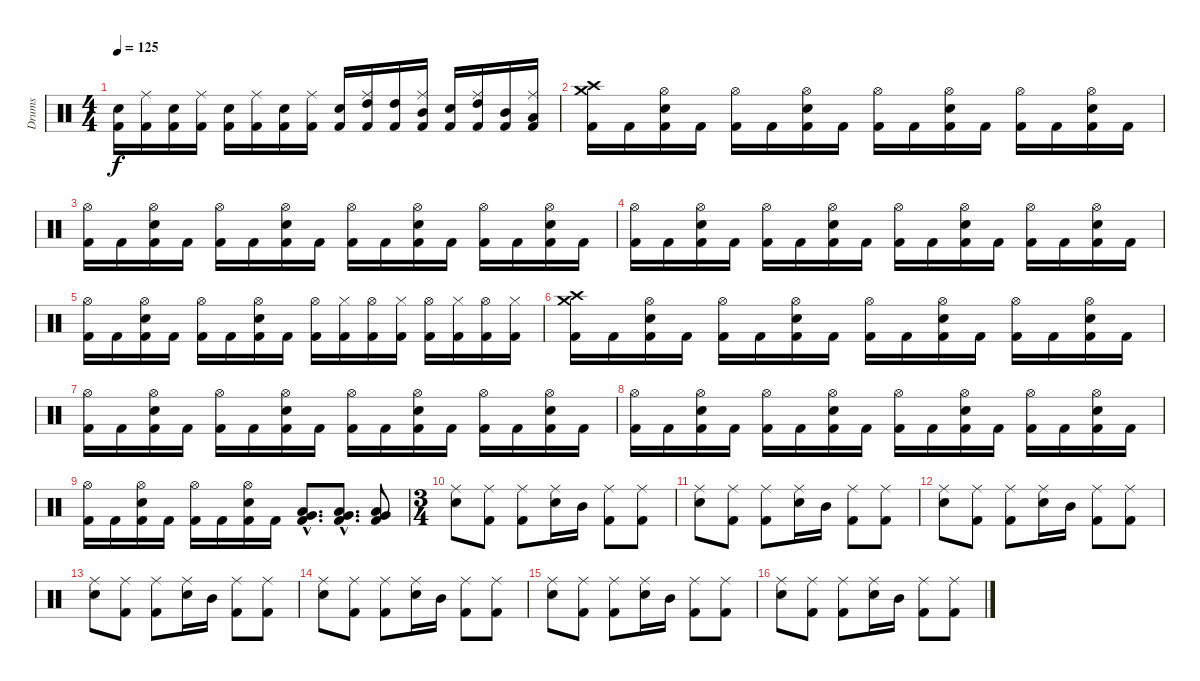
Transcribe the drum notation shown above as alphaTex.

\track ("Drums" "Drums") {instrument percussion}
\staff {score}
\articulation defaults
\ts (4 4)
\tempo 125
\clef neutral
\ks c
("Electric Snare (hit)" "Kick (hit) 2").16{dy f} ("Ride (middle)" "Kick (hit) 2").16 ("Electric Snare (hit)" "Kick (hit) 2").16 ("Ride (middle)" "Kick (hit) 2").16 ("Electric Snare (hit)" "Kick (hit) 2").16 ("Ride (middle)" "Kick (hit) 2").16 ("Electric Snare (hit)" "Kick (hit) 2").16 ("Ride (middle)" "Kick (hit) 2").16 ("Electric Snare (hit)" "Kick (hit) 2").16 ("Ride (middle)" "High Tom (hit)" "Kick (hit) 2").16 ("High Tom (hit)" "Kick (hit) 2").16 ("Ride (middle)" "Mid Tom (hit)" "Kick (hit) 2").16 ("Electric Snare (hit)" "Kick (hit) 2").16 ("Ride (middle)" "High Tom (hit)" "Kick (hit) 2").16 ("Mid Tom (hit)" "Kick (hit) 2").16 ("Ride (middle)" "Low Tom (hit)" "Kick (hit) 2").16 |
("Crash high (hit)" "Crash medium (hit)" "Kick (hit) 2").16 "Kick (hit) 2".16 ("Hi-Hat (open)" "Electric Snare (hit)" "Kick (hit) 2").16 "Kick (hit) 2".16 ("Hi-Hat (open)" "Kick (hit) 2").16 "Kick (hit) 2".16 ("Hi-Hat (open)" "Electric Snare (hit)" "Kick (hit) 2").16 "Kick (hit) 2".16 ("Hi-Hat (open)" "Kick (hit) 2").16 "Kick (hit) 2".16 ("Hi-Hat (open)" "Electric Snare (hit)" "Kick (hit) 2").16 "Kick (hit) 2".16 ("Hi-Hat (open)" "Kick (hit) 2").16 "Kick (hit) 2".16 ("Hi-Hat (open)" "Electric Snare (hit)" "Kick (hit) 2").16 "Kick (hit) 2".16 |
("Hi-Hat (open)" "Kick (hit) 2").16 "Kick (hit) 2".16 ("Hi-Hat (open)" "Electric Snare (hit)" "Kick (hit) 2").16 "Kick (hit) 2".16 ("Hi-Hat (open)" "Kick (hit) 2").16 "Kick (hit) 2".16 ("Hi-Hat (open)" "Electric Snare (hit)" "Kick (hit) 2").16 "Kick (hit) 2".16 ("Hi-Hat (open)" "Kick (hit) 2").16 "Kick (hit) 2".16 ("Hi-Hat (open)" "Electric Snare (hit)" "Kick (hit) 2").16 "Kick (hit) 2".16 ("Hi-Hat (open)" "Kick (hit) 2").16 "Kick (hit) 2".16 ("Hi-Hat (open)" "Electric Snare (hit)" "Kick (hit) 2").16 "Kick (hit) 2".16 |
("Hi-Hat (open)" "Kick (hit) 2").16 "Kick (hit) 2".16 ("Hi-Hat (open)" "Electric Snare (hit)" "Kick (hit) 2").16 "Kick (hit) 2".16 ("Hi-Hat (open)" "Kick (hit) 2").16 "Kick (hit) 2".16 ("Hi-Hat (open)" "Electric Snare (hit)" "Kick (hit) 2").16 "Kick (hit) 2".16 ("Hi-Hat (open)" "Kick (hit) 2").16 "Kick (hit) 2".16 ("Hi-Hat (open)" "Electric Snare (hit)" "Kick (hit) 2").16 "Kick (hit) 2".16 ("Hi-Hat (open)" "Kick (hit) 2").16 "Kick (hit) 2".16 ("Hi-Hat (open)" "Electric Snare (hit)" "Kick (hit) 2").16 "Kick (hit) 2".16 |
("Hi-Hat (open)" "Kick (hit) 2").16 "Kick (hit) 2".16 ("Hi-Hat (open)" "Electric Snare (hit)" "Kick (hit) 2").16 "Kick (hit) 2".16 ("Hi-Hat (open)" "Kick (hit) 2").16 "Kick (hit) 2".16 ("Hi-Hat (open)" "Electric Snare (hit)" "Kick (hit) 2").16 "Kick (hit) 2".16 ("Hi-Hat (open)" "Kick (hit) 2").16 ("Hi-Hat (closed)" "Kick (hit) 2").16 ("Hi-Hat (open)" "Kick (hit) 2").16 ("Hi-Hat (closed)" "Kick (hit) 2").16 ("Hi-Hat (open)" "Kick (hit) 2").16 ("Hi-Hat (closed)" "Kick (hit) 2").16 ("Hi-Hat (open)" "Kick (hit) 2").16 ("Hi-Hat (closed)" "Kick (hit) 2").16 |
("Crash high (hit)" "Crash medium (hit)" "Kick (hit) 2").16 "Kick (hit) 2".16 ("Hi-Hat (open)" "Electric Snare (hit)" "Kick (hit) 2").16 "Kick (hit) 2".16 ("Hi-Hat (open)" "Kick (hit) 2").16 "Kick (hit) 2".16 ("Hi-Hat (open)" "Electric Snare (hit)" "Kick (hit) 2").16 "Kick (hit) 2".16 ("Hi-Hat (open)" "Kick (hit) 2").16 "Kick (hit) 2".16 ("Hi-Hat (open)" "Electric Snare (hit)" "Kick (hit) 2").16 "Kick (hit) 2".16 ("Hi-Hat (open)" "Kick (hit) 2").16 "Kick (hit) 2".16 ("Hi-Hat (open)" "Electric Snare (hit)" "Kick (hit) 2").16 "Kick (hit) 2".16 |
("Hi-Hat (open)" "Kick (hit) 2").16 "Kick (hit) 2".16 ("Hi-Hat (open)" "Electric Snare (hit)" "Kick (hit) 2").16 "Kick (hit) 2".16 ("Hi-Hat (open)" "Kick (hit) 2").16 "Kick (hit) 2".16 ("Hi-Hat (open)" "Electric Snare (hit)" "Kick (hit) 2").16 "Kick (hit) 2".16 ("Hi-Hat (open)" "Kick (hit) 2").16 "Kick (hit) 2".16 ("Hi-Hat (open)" "Electric Snare (hit)" "Kick (hit) 2").16 "Kick (hit) 2".16 ("Hi-Hat (open)" "Kick (hit) 2").16 "Kick (hit) 2".16 ("Hi-Hat (open)" "Electric Snare (hit)" "Kick (hit) 2").16 "Kick (hit) 2".16 |
("Hi-Hat (open)" "Kick (hit) 2").16 "Kick (hit) 2".16 ("Hi-Hat (open)" "Electric Snare (hit)" "Kick (hit) 2").16 "Kick (hit) 2".16 ("Hi-Hat (open)" "Kick (hit) 2").16 "Kick (hit) 2".16 ("Hi-Hat (open)" "Electric Snare (hit)" "Kick (hit) 2").16 "Kick (hit) 2".16 ("Hi-Hat (open)" "Kick (hit) 2").16 "Kick (hit) 2".16 ("Hi-Hat (open)" "Electric Snare (hit)" "Kick (hit) 2").16 "Kick (hit) 2".16 ("Hi-Hat (open)" "Kick (hit) 2").16 "Kick (hit) 2".16 ("Hi-Hat (open)" "Electric Snare (hit)" "Kick (hit) 2").16 "Kick (hit) 2".16 |
("Hi-Hat (open)" "Kick (hit) 2").16 "Kick (hit) 2".16 ("Hi-Hat (open)" "Electric Snare (hit)" "Kick (hit) 2").16 "Kick (hit) 2".16 ("Hi-Hat (open)" "Kick (hit) 2").16 "Kick (hit) 2".16 ("Hi-Hat (open)" "Electric Snare (hit)" "Kick (hit) 2").16 "Kick (hit) 2".16 ("Very Low Tom (hit)"{hac} "Low Floor Tom (hit)"{hac} "Kick (hit) 2"{hac}).8{d} ("Very Low Tom (hit)"{hac} "Low Floor Tom (hit)"{hac} "Kick (hit) 2"{hac}).8{d} ("Very Low Tom (hit)" "Low Floor Tom (hit)" "Kick (hit) 2").8 |
\ts (3 4)
("Ride (middle)" "Electric Snare (hit)").8 ("Ride (middle)" "Kick (hit) 2").8 ("Ride (middle)" "Kick (hit) 2").8 ("Ride (middle)" "Electric Snare (hit)").16 "Mid Tom (hit)".16 ("Ride (middle)" "Kick (hit) 2").8 ("Ride (middle)" "Kick (hit) 2").8 |
("Ride (middle)" "Electric Snare (hit)").8 ("Ride (middle)" "Kick (hit) 2").8 ("Ride (middle)" "Kick (hit) 2").8 ("Ride (middle)" "Electric Snare (hit)").16 "Mid Tom (hit)".16 ("Ride (middle)" "Kick (hit) 2").8 ("Ride (middle)" "Kick (hit) 2").8 |
("Ride (middle)" "Electric Snare (hit)").8 ("Ride (middle)" "Kick (hit) 2").8 ("Ride (middle)" "Kick (hit) 2").8 ("Ride (middle)" "Electric Snare (hit)").16 "Mid Tom (hit)".16 ("Ride (middle)" "Kick (hit) 2").8 ("Ride (middle)" "Kick (hit) 2").8 |
("Ride (middle)" "Electric Snare (hit)").8 ("Ride (middle)" "Kick (hit) 2").8 ("Ride (middle)" "Kick (hit) 2").8 ("Ride (middle)" "Electric Snare (hit)").16 "Mid Tom (hit)".16 ("Ride (middle)" "Kick (hit) 2").8 ("Ride (middle)" "Kick (hit) 2").8 |
("Ride (middle)" "Electric Snare (hit)").8 ("Ride (middle)" "Kick (hit) 2").8 ("Ride (middle)" "Kick (hit) 2").8 ("Ride (middle)" "Electric Snare (hit)").16 "Mid Tom (hit)".16 ("Ride (middle)" "Kick (hit) 2").8 ("Ride (middle)" "Kick (hit) 2").8 |
("Ride (middle)" "Electric Snare (hit)").8 ("Ride (middle)" "Kick (hit) 2").8 ("Ride (middle)" "Kick (hit) 2").8 ("Ride (middle)" "Electric Snare (hit)").16 "Mid Tom (hit)".16 ("Ride (middle)" "Kick (hit) 2").8 ("Ride (middle)" "Kick (hit) 2").8 |
("Ride (middle)" "Electric Snare (hit)").8 ("Ride (middle)" "Kick (hit) 2").8 ("Ride (middle)" "Kick (hit) 2").8 ("Ride (middle)" "Electric Snare (hit)").16 "Mid Tom (hit)".16 ("Ride (middle)" "Kick (hit) 2").8 ("Ride (middle)" "Kick (hit) 2").8
